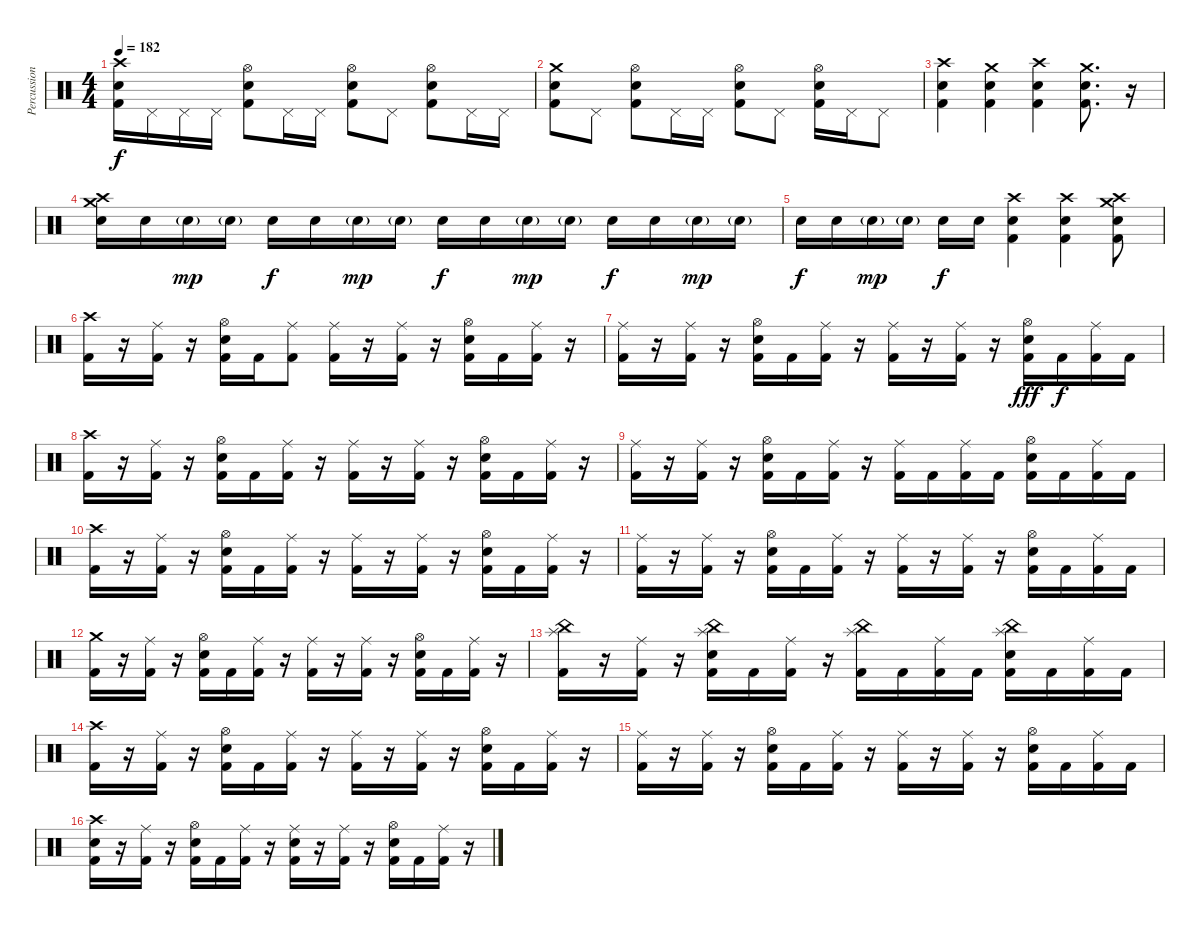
\track ("Percussion" "Percussion") {instrument percussion}
\staff {score}
\articulation defaults
\ts (4 4)
\tempo 182
\clef neutral
\ks c
("Crash high (hit)" "Snare (hit) 2" "Kick (hit) 2").16{dy f} "Pedal Hi-Hat (hit)".16 "Pedal Hi-Hat (hit)".16 "Pedal Hi-Hat (hit)".16 ("Hi-Hat (open)" "Snare (hit) 2" "Kick (hit) 2").8 "Pedal Hi-Hat (hit)".16 "Pedal Hi-Hat (hit)".16 ("Hi-Hat (open)" "Snare (hit) 2" "Kick (hit) 2").8 "Pedal Hi-Hat (hit)".8 ("Hi-Hat (open)" "Snare (hit) 2" "Kick (hit) 2").8 "Pedal Hi-Hat (hit)".16 "Pedal Hi-Hat (hit)".16 |
("Crash medium (hit)" "Snare (hit) 2" "Kick (hit) 2").8 "Pedal Hi-Hat (hit)".8 ("Hi-Hat (open)" "Snare (hit) 2" "Kick (hit) 2").8 "Pedal Hi-Hat (hit)".16 "Pedal Hi-Hat (hit)".16 ("Hi-Hat (open)" "Snare (hit) 2" "Kick (hit) 2").8 "Pedal Hi-Hat (hit)".8 ("Hi-Hat (open)" "Snare (hit) 2" "Kick (hit) 2").16 "Pedal Hi-Hat (hit)".16 "Pedal Hi-Hat (hit)".8 |
("Crash high (hit)" "Snare (hit) 2" "Kick (hit) 2").4 ("Crash medium (hit)" "Snare (hit) 2" "Kick (hit) 2").4 ("Crash high (hit)" "Snare (hit) 2" "Kick (hit) 2").4 ("Crash medium (hit)" "Snare (hit) 2" "Kick (hit) 2").8{d} r.16{volume 14} |
("Crash high (hit)" "Crash medium (hit)" "Snare (hit) 2").16{volume 16} "Snare (hit) 2".16 "Snare (hit) 2"{g}.16{dy mp} "Snare (hit) 2"{g}.16 "Snare (hit) 2".16{dy f} "Snare (hit) 2".16 "Snare (hit) 2"{g}.16{dy mp} "Snare (hit) 2"{g}.16 "Snare (hit) 2".16{dy f} "Snare (hit) 2".16 "Snare (hit) 2"{g}.16{dy mp} "Snare (hit) 2"{g}.16 "Snare (hit) 2".16{dy f} "Snare (hit) 2".16 "Snare (hit) 2"{g}.16{dy mp} "Snare (hit) 2"{g}.16 |
"Snare (hit) 2".16{dy f} "Snare (hit) 2".16 "Snare (hit) 2"{g}.16{dy mp} "Snare (hit) 2"{g}.16 "Snare (hit) 2".16{dy f} "Snare (hit) 2".16 ("Crash high (hit)" "Snare (hit) 2" "Kick (hit) 2").4 ("Crash high (hit)" "Snare (hit) 2" "Kick (hit) 2").4 ("Crash medium (hit)" "Crash high (hit)" "Snare (hit) 2" "Kick (hit) 2").8 |
("Crash high (hit)" "Kick (hit) 2").16 r.16 ("Ride (middle)" "Kick (hit) 2").16 r.16 ("Hi-Hat (open)" "Snare (hit) 2" "Kick (hit) 2").16 "Kick (hit) 2".16 ("Ride (middle)" "Kick (hit) 2").8 ("Ride (middle)" "Kick (hit) 2").16 r.16 ("Ride (middle)" "Kick (hit) 2").16 r.16 ("Hi-Hat (open)" "Snare (hit) 2" "Kick (hit) 2").16 "Kick (hit) 2".16 ("Ride (middle)" "Kick (hit) 2").16 r.16 |
("Ride (middle)" "Kick (hit) 2").16 r.16 ("Ride (middle)" "Kick (hit) 2").16 r.16 ("Hi-Hat (open)" "Snare (hit) 2" "Kick (hit) 2").16 "Kick (hit) 2".16 ("Ride (middle)" "Kick (hit) 2").16 r.16 ("Ride (middle)" "Kick (hit) 2").16 r.16 ("Ride (middle)" "Kick (hit) 2").16 r.16 ("Hi-Hat (open)" "Snare (hit) 2" "Kick (hit) 2").16{dy fff} "Kick (hit) 2".16{dy f} ("Ride (middle)" "Kick (hit) 2").16 "Kick (hit) 2".16 |
("Crash high (hit)" "Kick (hit) 2").16 r.16 ("Ride (middle)" "Kick (hit) 2").16 r.16 ("Hi-Hat (open)" "Snare (hit) 2" "Kick (hit) 2").16 "Kick (hit) 2".16 ("Ride (middle)" "Kick (hit) 2").16 r.16 ("Ride (middle)" "Kick (hit) 2").16 r.16 ("Ride (middle)" "Kick (hit) 2").16 r.16 ("Hi-Hat (open)" "Snare (hit) 2" "Kick (hit) 2").16 "Kick (hit) 2".16 ("Ride (middle)" "Kick (hit) 2").16 r.16 |
("Ride (middle)" "Kick (hit) 2").16 r.16 ("Ride (middle)" "Kick (hit) 2").16 r.16 ("Hi-Hat (open)" "Snare (hit) 2" "Kick (hit) 2").16 "Kick (hit) 2".16 ("Ride (middle)" "Kick (hit) 2").16 r.16 ("Ride (middle)" "Kick (hit) 2").16 "Kick (hit) 2".16 ("Ride (middle)" "Kick (hit) 2").16 "Kick (hit) 2".16 ("Hi-Hat (open)" "Snare (hit) 2" "Kick (hit) 2").16 "Kick (hit) 2".16 ("Ride (middle)" "Kick (hit) 2").16 "Kick (hit) 2".16 |
("Crash high (hit)" "Kick (hit) 2").16 r.16 ("Ride (middle)" "Kick (hit) 2").16 r.16 ("Hi-Hat (open)" "Snare (hit) 2" "Kick (hit) 2").16 "Kick (hit) 2".16 ("Ride (middle)" "Kick (hit) 2").16 r.16 ("Ride (middle)" "Kick (hit) 2").16 r.16 ("Ride (middle)" "Kick (hit) 2").16 r.16 ("Hi-Hat (open)" "Snare (hit) 2" "Kick (hit) 2").16 "Kick (hit) 2".16 ("Ride (middle)" "Kick (hit) 2").16 r.16 |
("Ride (middle)" "Kick (hit) 2").16 r.16 ("Ride (middle)" "Kick (hit) 2").16 r.16 ("Hi-Hat (open)" "Snare (hit) 2" "Kick (hit) 2").16 "Kick (hit) 2".16 ("Ride (middle)" "Kick (hit) 2").16 r.16 ("Ride (middle)" "Kick (hit) 2").16 r.16 ("Ride (middle)" "Kick (hit) 2").16 r.16 ("Hi-Hat (open)" "Snare (hit) 2" "Kick (hit) 2").16 "Kick (hit) 2".16 ("Ride (middle)" "Kick (hit) 2").16 "Kick (hit) 2".16 |
("Crash medium (hit)" "Kick (hit) 2").16 r.16 ("Ride (middle)" "Kick (hit) 2").16 r.16 ("Hi-Hat (open)" "Snare (hit) 2" "Kick (hit) 2").16 "Kick (hit) 2".16 ("Ride (middle)" "Kick (hit) 2").16 r.16 ("Ride (middle)" "Kick (hit) 2").16 r.16 ("Ride (middle)" "Kick (hit) 2").16 r.16 ("Hi-Hat (open)" "Snare (hit) 2" "Kick (hit) 2").16 "Kick (hit) 2".16 ("Ride (middle)" "Kick (hit) 2").16 r.16 |
("China (hit)" "Splash (hit)" "Kick (hit) 2").16 r.16 ("Ride (middle)" "Kick (hit) 2").16 r.16 ("China (hit)" "Splash (hit)" "Snare (hit) 2" "Kick (hit) 2").16 "Kick (hit) 2".16 ("Ride (middle)" "Kick (hit) 2").16 r.16 ("Splash (hit)" "China (hit)" "Kick (hit) 2").16 "Kick (hit) 2".16 ("Ride (middle)" "Kick (hit) 2").16 "Kick (hit) 2".16 ("China (hit)" "Splash (hit)" "Snare (hit) 2" "Kick (hit) 2").16 "Kick (hit) 2".16 ("Ride (middle)" "Kick (hit) 2").16 "Kick (hit) 2".16 |
("Crash high (hit)" "Kick (hit) 2").16 r.16 ("Ride (middle)" "Kick (hit) 2").16 r.16 ("Hi-Hat (open)" "Snare (hit) 2" "Kick (hit) 2").16 "Kick (hit) 2".16 ("Ride (middle)" "Kick (hit) 2").16 r.16 ("Ride (middle)" "Kick (hit) 2").16 r.16 ("Ride (middle)" "Kick (hit) 2").16 r.16 ("Hi-Hat (open)" "Snare (hit) 2" "Kick (hit) 2").16 "Kick (hit) 2".16 ("Ride (middle)" "Kick (hit) 2").16 r.16 |
("Ride (middle)" "Kick (hit) 2").16 r.16 ("Ride (middle)" "Kick (hit) 2").16 r.16 ("Hi-Hat (open)" "Snare (hit) 2" "Kick (hit) 2").16 "Kick (hit) 2".16 ("Ride (middle)" "Kick (hit) 2").16 r.16 ("Ride (middle)" "Kick (hit) 2").16 r.16 ("Ride (middle)" "Kick (hit) 2").16 r.16 ("Hi-Hat (open)" "Snare (hit) 2" "Kick (hit) 2").16 "Kick (hit) 2".16 ("Ride (middle)" "Kick (hit) 2").16 "Kick (hit) 2".16 |
("Crash high (hit)" "Snare (hit) 2" "Kick (hit) 2").16 r.16 ("Ride (middle)" "Kick (hit) 2").16 r.16 ("Hi-Hat (open)" "Snare (hit) 2" "Kick (hit) 2").16 "Kick (hit) 2".16 ("Ride (middle)" "Kick (hit) 2").16 r.16 ("Ride (middle)" "Snare (hit) 2" "Kick (hit) 2").16 r.16 ("Ride (middle)" "Kick (hit) 2").16 r.16 ("Hi-Hat (open)" "Snare (hit) 2" "Kick (hit) 2").16 "Kick (hit) 2".16 ("Ride (middle)" "Kick (hit) 2").16 r.16
